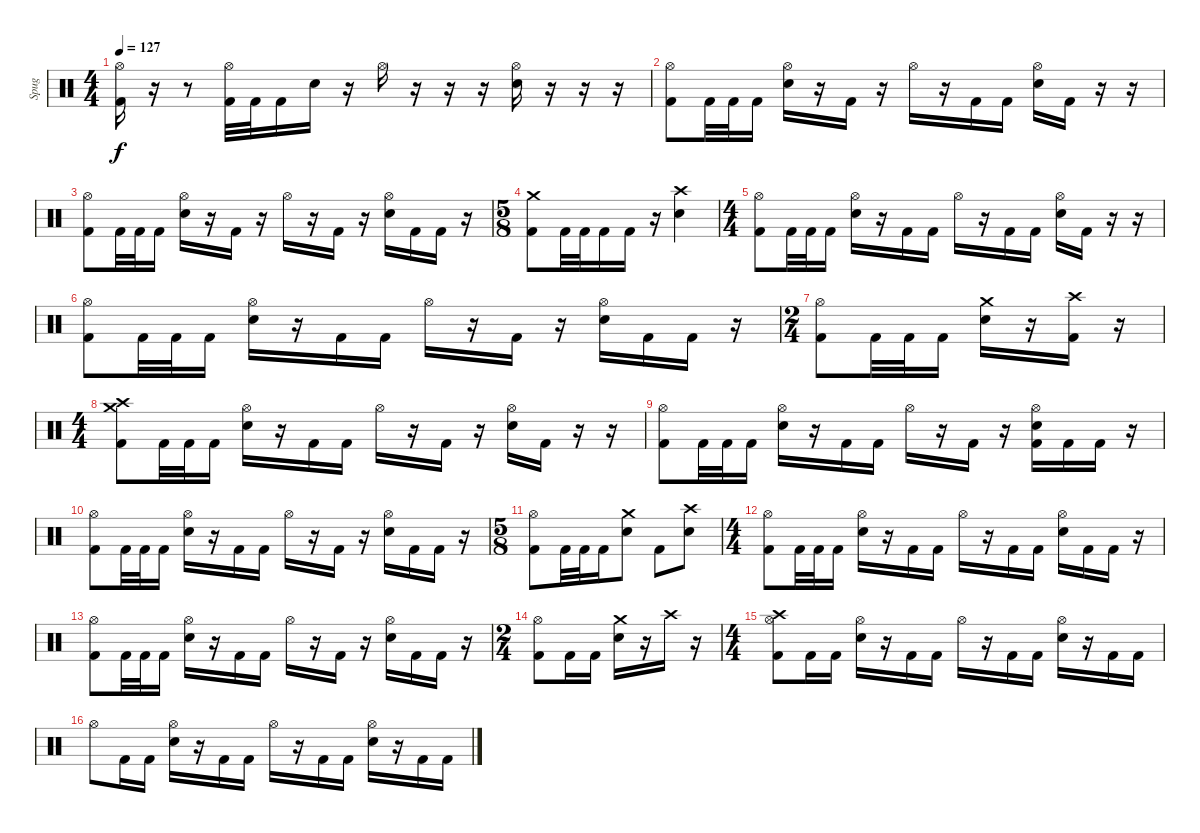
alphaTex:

\track ("Spug" "Spug") {instrument percussion}
\staff {score}
\articulation defaults
\ts (4 4)
\tempo 127
\clef neutral
\ks c
("Hi-Hat (open)" "Kick (hit) 2").16{dy f} r.16 r.8 ("Hi-Hat (open)" "Kick (hit) 2").32 "Kick (hit) 2".32 "Kick (hit) 2".16 "Electric Snare (hit)".16 r.16 "Hi-Hat (open)".16 r.16 r.16 r.16 ("Hi-Hat (open)" "Electric Snare (hit)").16 r.16 r.16 r.16 |
("Hi-Hat (open)" "Kick (hit) 2").8 "Kick (hit) 2".32 "Kick (hit) 2".32 "Kick (hit) 2".16 ("Hi-Hat (open)" "Electric Snare (hit)").16 r.16 "Kick (hit) 2".16 r.16 "Hi-Hat (open)".16 r.16 "Kick (hit) 2".16 "Kick (hit) 2".16 ("Hi-Hat (open)" "Electric Snare (hit)").16 "Kick (hit) 2".16 r.16 r.16 |
("Hi-Hat (open)" "Kick (hit) 2").8 "Kick (hit) 2".32 "Kick (hit) 2".32 "Kick (hit) 2".16 ("Hi-Hat (open)" "Electric Snare (hit)").16 r.16 "Kick (hit) 2".16 r.16 "Hi-Hat (open)".16 r.16 "Kick (hit) 2".16 r.16 ("Hi-Hat (open)" "Electric Snare (hit)").16 "Kick (hit) 2".16 "Kick (hit) 2".16 r.16 |
\ts (5 8)
("Crash medium (hit)" "Kick (hit) 2").8 "Kick (hit) 2".32 "Kick (hit) 2".32 "Kick (hit) 2".16 "Kick (hit) 2".16 r.16 ("Crash high (hit)" "Electric Snare (hit)").4 |
\ts (4 4)
("Hi-Hat (open)" "Kick (hit) 2").8 "Kick (hit) 2".32 "Kick (hit) 2".32 "Kick (hit) 2".16 ("Hi-Hat (open)" "Electric Snare (hit)").16 r.16 "Kick (hit) 2".16 "Kick (hit) 2".16 "Hi-Hat (open)".16 r.16 "Kick (hit) 2".16 "Kick (hit) 2".16 ("Hi-Hat (open)" "Electric Snare (hit)").16 "Kick (hit) 2".16 r.16 r.16 |
("Hi-Hat (open)" "Kick (hit) 2").8 "Kick (hit) 2".32 "Kick (hit) 2".32 "Kick (hit) 2".16 ("Hi-Hat (open)" "Electric Snare (hit)").16 r.16 "Kick (hit) 2".16 "Kick (hit) 2".16 "Hi-Hat (open)".16 r.16 "Kick (hit) 2".16 r.16 ("Hi-Hat (open)" "Electric Snare (hit)").16 "Kick (hit) 2".16 "Kick (hit) 2".16 r.16 |
\ts (2 4)
("Hi-Hat (open)" "Kick (hit) 2").8 "Kick (hit) 2".32 "Kick (hit) 2".32 "Kick (hit) 2".16 ("Crash medium (hit)" "Electric Snare (hit)").16 r.16 ("Crash high (hit)" "Kick (hit) 2").16 r.16 |
\ts (4 4)
("Crash high (hit)" "Crash medium (hit)" "Kick (hit) 2").8 "Kick (hit) 2".32 "Kick (hit) 2".32 "Kick (hit) 2".16 ("Hi-Hat (open)" "Electric Snare (hit)").16 r.16 "Kick (hit) 2".16 "Kick (hit) 2".16 "Hi-Hat (open)".16 r.16 "Kick (hit) 2".16 r.16 ("Hi-Hat (open)" "Electric Snare (hit)").16 "Kick (hit) 2".16 r.16 r.16 |
("Hi-Hat (open)" "Kick (hit) 2").8 "Kick (hit) 2".32 "Kick (hit) 2".32 "Kick (hit) 2".16 ("Hi-Hat (open)" "Electric Snare (hit)").16 r.16 "Kick (hit) 2".16 "Kick (hit) 2".16 "Hi-Hat (open)".16 r.16 "Kick (hit) 2".16 r.16 ("Hi-Hat (open)" "Electric Snare (hit)" "Kick (hit) 2").16 "Kick (hit) 2".16 "Kick (hit) 2".16 r.16 |
("Hi-Hat (open)" "Kick (hit) 2").8 "Kick (hit) 2".32 "Kick (hit) 2".32 "Kick (hit) 2".16 ("Hi-Hat (open)" "Electric Snare (hit)").16 r.16 "Kick (hit) 2".16 "Kick (hit) 2".16 "Hi-Hat (open)".16 r.16 "Kick (hit) 2".16 r.16 ("Hi-Hat (open)" "Electric Snare (hit)").16 "Kick (hit) 2".16 "Kick (hit) 2".16 r.16 |
\ts (5 8)
("Hi-Hat (open)" "Kick (hit) 2").8 "Kick (hit) 2".32 "Kick (hit) 2".32 "Kick (hit) 2".16 ("Crash medium (hit)" "Electric Snare (hit)").8 "Kick (hit) 2".8 ("Crash high (hit)" "Electric Snare (hit)").8 |
\ts (4 4)
("Hi-Hat (open)" "Kick (hit) 2").8 "Kick (hit) 2".32 "Kick (hit) 2".32 "Kick (hit) 2".16 ("Hi-Hat (open)" "Electric Snare (hit)").16 r.16 "Kick (hit) 2".16 "Kick (hit) 2".16 "Hi-Hat (open)".16 r.16 "Kick (hit) 2".16 "Kick (hit) 2".16 ("Hi-Hat (open)" "Electric Snare (hit)").16 "Kick (hit) 2".16 "Kick (hit) 2".16 r.16 |
("Hi-Hat (open)" "Kick (hit) 2").8 "Kick (hit) 2".32 "Kick (hit) 2".32 "Kick (hit) 2".16 ("Hi-Hat (open)" "Electric Snare (hit)").16 r.16 "Kick (hit) 2".16 "Kick (hit) 2".16 "Hi-Hat (open)".16 r.16 "Kick (hit) 2".16 r.16 ("Hi-Hat (open)" "Electric Snare (hit)").16 "Kick (hit) 2".16 "Kick (hit) 2".16 r.16 |
\ts (2 4)
("Hi-Hat (open)" "Kick (hit) 2").8 "Kick (hit) 2".16 "Kick (hit) 2".16 ("Crash medium (hit)" "Electric Snare (hit)").16 r.16 "Crash high (hit)".16 r.16 |
\ts (4 4)
("Crash high (hit)" "Hi-Hat (open)" "Kick (hit) 2").8 "Kick (hit) 2".16 "Kick (hit) 2".16 ("Hi-Hat (open)" "Electric Snare (hit)").16 r.16 "Kick (hit) 2".16 "Kick (hit) 2".16 "Hi-Hat (open)".16 r.16 "Kick (hit) 2".16 "Kick (hit) 2".16 ("Hi-Hat (open)" "Electric Snare (hit)").16 r.16 "Kick (hit) 2".16 "Kick (hit) 2".16 |
"Hi-Hat (open)".8 "Kick (hit) 2".16 "Kick (hit) 2".16 ("Hi-Hat (open)" "Electric Snare (hit)").16 r.16 "Kick (hit) 2".16 "Kick (hit) 2".16 "Hi-Hat (open)".16 r.16 "Kick (hit) 2".16 "Kick (hit) 2".16 ("Hi-Hat (open)" "Electric Snare (hit)").16 r.16 "Kick (hit) 2".16 "Kick (hit) 2".16
